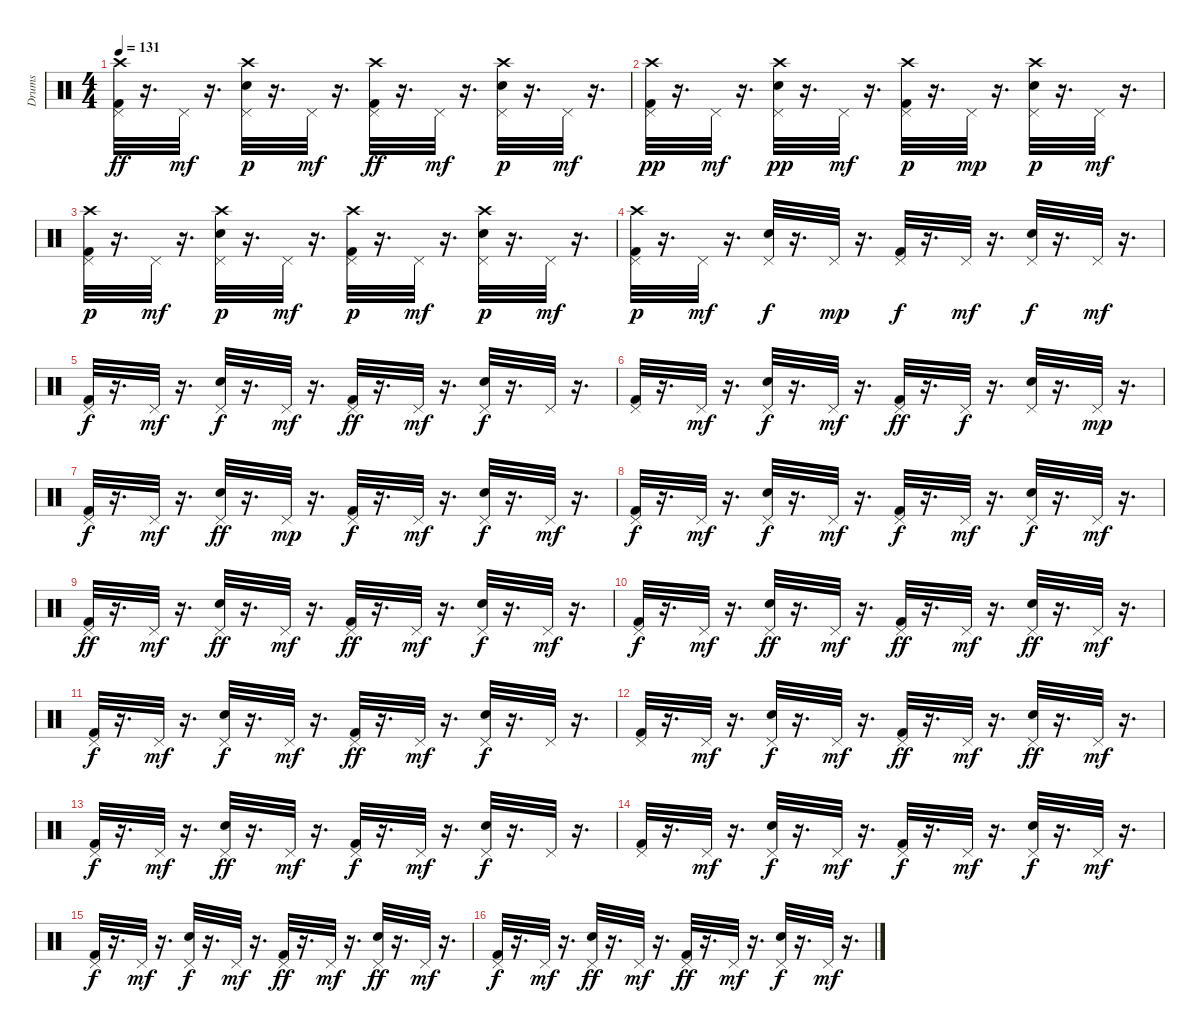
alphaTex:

\track ("Drums" "Drums") {instrument percussion}
\staff {score}
\articulation defaults
\ts (4 4)
\tempo 131
\clef neutral
\ks c
("Crash high (hit)" "Pedal Hi-Hat (hit)" "Kick (hit) 2").32{dy ff} r.16{d} "Pedal Hi-Hat (hit)".32{dy mf} r.16{d} ("Pedal Hi-Hat (hit)" "Snare (hit) 2" "Crash high (hit)").32{dy p} r.16{d} "Pedal Hi-Hat (hit)".32{dy mf} r.16{d} ("Crash high (hit)" "Pedal Hi-Hat (hit)" "Kick (hit) 2").32{dy ff} r.16{d} "Pedal Hi-Hat (hit)".32{dy mf} r.16{d} ("Pedal Hi-Hat (hit)" "Snare (hit) 2" "Crash high (hit)").32{dy p} r.16{d} "Pedal Hi-Hat (hit)".32{dy mf} r.16{d} |
("Pedal Hi-Hat (hit)" "Crash high (hit)" "Kick (hit) 2").32{dy pp} r.16{d} "Pedal Hi-Hat (hit)".32{dy mf} r.16{d} ("Pedal Hi-Hat (hit)" "Snare (hit) 2" "Crash high (hit)").32{dy pp} r.16{d} "Pedal Hi-Hat (hit)".32{dy mf} r.16{d} ("Pedal Hi-Hat (hit)" "Kick (hit) 2" "Crash high (hit)").32{dy p} r.16{d} "Pedal Hi-Hat (hit)".32{dy mp} r.16{d} ("Snare (hit) 2" "Pedal Hi-Hat (hit)" "Crash high (hit)").32{dy p} r.16{d} "Pedal Hi-Hat (hit)".32{dy mf} r.16{d} |
("Kick (hit) 2" "Pedal Hi-Hat (hit)" "Crash high (hit)").32{dy p} r.16{d} "Pedal Hi-Hat (hit)".32{dy mf} r.16{d} ("Crash high (hit)" "Pedal Hi-Hat (hit)" "Snare (hit) 2").32{dy p} r.16{d} "Pedal Hi-Hat (hit)".32{dy mf} r.16{d} ("Pedal Hi-Hat (hit)" "Crash high (hit)" "Kick (hit) 2").32{dy p} r.16{d} "Pedal Hi-Hat (hit)".32{dy mf} r.16{d} ("Crash high (hit)" "Pedal Hi-Hat (hit)" "Snare (hit) 2").32{dy p} r.16{d} "Pedal Hi-Hat (hit)".32{dy mf} r.16{d} |
("Crash high (hit)" "Kick (hit) 2" "Pedal Hi-Hat (hit)").32{dy p} r.16{d} "Pedal Hi-Hat (hit)".32{dy mf} r.16{d} ("Pedal Hi-Hat (hit)" "Snare (hit) 2").32{dy f} r.16{d} "Pedal Hi-Hat (hit)".32{dy mp} r.16{d} ("Kick (hit) 2" "Pedal Hi-Hat (hit)").32{dy f} r.16{d} "Pedal Hi-Hat (hit)".32{dy mf} r.16{d} ("Pedal Hi-Hat (hit)" "Snare (hit) 2").32{dy f} r.16{d} "Pedal Hi-Hat (hit)".32{dy mf} r.16{d} |
("Kick (hit) 2" "Pedal Hi-Hat (hit)").32{dy f} r.16{d} "Pedal Hi-Hat (hit)".32{dy mf} r.16{d} ("Pedal Hi-Hat (hit)" "Snare (hit) 2").32{dy f} r.16{d} "Pedal Hi-Hat (hit)".32{dy mf} r.16{d} ("Kick (hit) 2" "Pedal Hi-Hat (hit)").32{dy ff} r.16{d} "Pedal Hi-Hat (hit)".32{dy mf} r.16{d} ("Pedal Hi-Hat (hit)" "Snare (hit) 2").32{dy f} r.16{d} "Pedal Hi-Hat (hit)".32 r.16{d} |
("Pedal Hi-Hat (hit)" "Kick (hit) 2").32 r.16{d} "Pedal Hi-Hat (hit)".32{dy mf} r.16{d} ("Snare (hit) 2" "Pedal Hi-Hat (hit)").32{dy f} r.16{d} "Pedal Hi-Hat (hit)".32{dy mf} r.16{d} ("Kick (hit) 2" "Pedal Hi-Hat (hit)").32{dy ff} r.16{d} "Pedal Hi-Hat (hit)".32{dy f} r.16{d} ("Snare (hit) 2" "Pedal Hi-Hat (hit)").32 r.16{d} "Pedal Hi-Hat (hit)".32{dy mp} r.16{d} |
("Pedal Hi-Hat (hit)" "Kick (hit) 2").32{dy f} r.16{d} "Pedal Hi-Hat (hit)".32{dy mf} r.16{d} ("Pedal Hi-Hat (hit)" "Snare (hit) 2").32{dy ff} r.16{d} "Pedal Hi-Hat (hit)".32{dy mp} r.16{d} ("Pedal Hi-Hat (hit)" "Kick (hit) 2").32{dy f} r.16{d} "Pedal Hi-Hat (hit)".32{dy mf} r.16{d} ("Snare (hit) 2" "Pedal Hi-Hat (hit)").32{dy f} r.16{d} "Pedal Hi-Hat (hit)".32{dy mf} r.16{d} |
("Pedal Hi-Hat (hit)" "Kick (hit) 2").32{dy f} r.16{d} "Pedal Hi-Hat (hit)".32{dy mf} r.16{d} ("Snare (hit) 2" "Pedal Hi-Hat (hit)").32{dy f} r.16{d} "Pedal Hi-Hat (hit)".32{dy mf} r.16{d} ("Kick (hit) 2" "Pedal Hi-Hat (hit)").32{dy f} r.16{d} "Pedal Hi-Hat (hit)".32{dy mf} r.16{d} ("Snare (hit) 2" "Pedal Hi-Hat (hit)").32{dy f} r.16{d} "Pedal Hi-Hat (hit)".32{dy mf} r.16{d} |
("Pedal Hi-Hat (hit)" "Kick (hit) 2").32{dy ff} r.16{d} "Pedal Hi-Hat (hit)".32{dy mf} r.16{d} ("Snare (hit) 2" "Pedal Hi-Hat (hit)").32{dy ff} r.16{d} "Pedal Hi-Hat (hit)".32{dy mf} r.16{d} ("Pedal Hi-Hat (hit)" "Kick (hit) 2").32{dy ff} r.16{d} "Pedal Hi-Hat (hit)".32{dy mf} r.16{d} ("Pedal Hi-Hat (hit)" "Snare (hit) 2").32{dy f} r.16{d} "Pedal Hi-Hat (hit)".32{dy mf} r.16{d} |
("Kick (hit) 2" "Pedal Hi-Hat (hit)").32{dy f} r.16{d} "Pedal Hi-Hat (hit)".32{dy mf} r.16{d} ("Snare (hit) 2" "Pedal Hi-Hat (hit)").32{dy ff} r.16{d} "Pedal Hi-Hat (hit)".32{dy mf} r.16{d} ("Kick (hit) 2" "Pedal Hi-Hat (hit)").32{dy ff} r.16{d} "Pedal Hi-Hat (hit)".32{dy mf} r.16{d} ("Pedal Hi-Hat (hit)" "Snare (hit) 2").32{dy ff} r.16{d} "Pedal Hi-Hat (hit)".32{dy mf} r.16{d} |
("Kick (hit) 2" "Pedal Hi-Hat (hit)").32{dy f} r.16{d} "Pedal Hi-Hat (hit)".32{dy mf} r.16{d} ("Pedal Hi-Hat (hit)" "Snare (hit) 2").32{dy f} r.16{d} "Pedal Hi-Hat (hit)".32{dy mf} r.16{d} ("Pedal Hi-Hat (hit)" "Kick (hit) 2").32{dy ff} r.16{d} "Pedal Hi-Hat (hit)".32{dy mf} r.16{d} ("Snare (hit) 2" "Pedal Hi-Hat (hit)").32{dy f} r.16{d} "Pedal Hi-Hat (hit)".32 r.16{d} |
("Kick (hit) 2" "Pedal Hi-Hat (hit)").32 r.16{d} "Pedal Hi-Hat (hit)".32{dy mf} r.16{d} ("Pedal Hi-Hat (hit)" "Snare (hit) 2").32{dy f} r.16{d} "Pedal Hi-Hat (hit)".32{dy mf} r.16{d} ("Pedal Hi-Hat (hit)" "Kick (hit) 2").32{dy ff} r.16{d} "Pedal Hi-Hat (hit)".32{dy mf} r.16{d} ("Snare (hit) 2" "Pedal Hi-Hat (hit)").32{dy ff} r.16{d} "Pedal Hi-Hat (hit)".32{dy mf} r.16{d} |
("Kick (hit) 2" "Pedal Hi-Hat (hit)").32{dy f} r.16{d} "Pedal Hi-Hat (hit)".32{dy mf} r.16{d} ("Snare (hit) 2" "Pedal Hi-Hat (hit)").32{dy ff} r.16{d} "Pedal Hi-Hat (hit)".32{dy mf} r.16{d} ("Pedal Hi-Hat (hit)" "Kick (hit) 2").32{dy f} r.16{d} "Pedal Hi-Hat (hit)".32{dy mf} r.16{d} ("Pedal Hi-Hat (hit)" "Snare (hit) 2").32{dy f} r.16{d} "Pedal Hi-Hat (hit)".32 r.16{d} |
("Pedal Hi-Hat (hit)" "Kick (hit) 2").32 r.16{d} "Pedal Hi-Hat (hit)".32{dy mf} r.16{d} ("Snare (hit) 2" "Pedal Hi-Hat (hit)").32{dy f} r.16{d} "Pedal Hi-Hat (hit)".32{dy mf} r.16{d} ("Kick (hit) 2" "Pedal Hi-Hat (hit)").32{dy f} r.16{d} "Pedal Hi-Hat (hit)".32{dy mf} r.16{d} ("Pedal Hi-Hat (hit)" "Snare (hit) 2").32{dy f} r.16{d} "Pedal Hi-Hat (hit)".32{dy mf} r.16{d} |
("Pedal Hi-Hat (hit)" "Kick (hit) 2").32{dy f} r.16{d} "Pedal Hi-Hat (hit)".32{dy mf} r.16{d} ("Snare (hit) 2" "Pedal Hi-Hat (hit)").32{dy f} r.16{d} "Pedal Hi-Hat (hit)".32{dy mf} r.16{d} ("Kick (hit) 2" "Pedal Hi-Hat (hit)").32{dy ff} r.16{d} "Pedal Hi-Hat (hit)".32{dy mf} r.16{d} ("Pedal Hi-Hat (hit)" "Snare (hit) 2").32{dy ff} r.16{d} "Pedal Hi-Hat (hit)".32{dy mf} r.16{d} |
("Pedal Hi-Hat (hit)" "Kick (hit) 2").32{dy f} r.16{d} "Pedal Hi-Hat (hit)".32{dy mf} r.16{d} ("Pedal Hi-Hat (hit)" "Snare (hit) 2").32{dy ff} r.16{d} "Pedal Hi-Hat (hit)".32{dy mf} r.16{d} ("Pedal Hi-Hat (hit)" "Kick (hit) 2").32{dy ff} r.16{d} "Pedal Hi-Hat (hit)".32{dy mf} r.16{d} ("Pedal Hi-Hat (hit)" "Snare (hit) 2").32{dy f} r.16{d} "Pedal Hi-Hat (hit)".32{dy mf} r.16{d}
